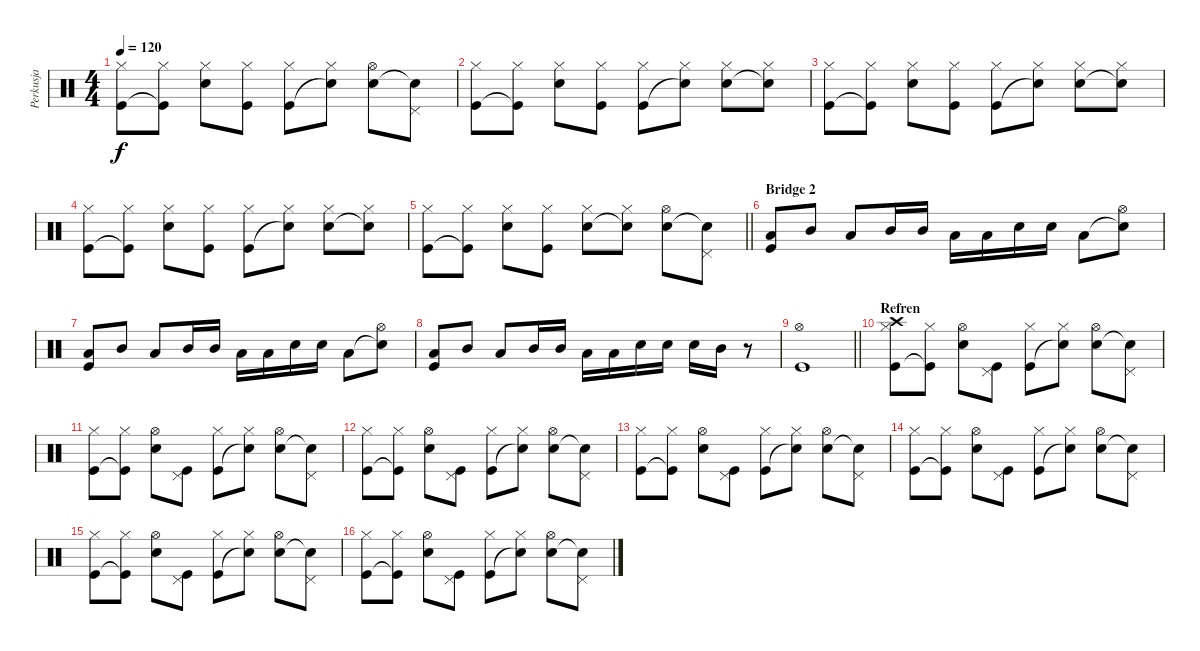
\track ("Perkusja" "Perkusja") {instrument percussion}
\staff {score}
\articulation defaults
\ts (4 4)
\tempo 120
\clef neutral
\ks c
("Kick (hit)" "Hi-Hat (closed)").8{dy f} ("Kick (hit)"{t} "Hi-Hat (closed)").8 ("Snare (hit) 2" "Hi-Hat (closed)").8 ("Kick (hit)" "Hi-Hat (closed)").8 ("Kick (hit)" "Hi-Hat (closed)").8 ("Snare (hit)"{t} "Hi-Hat (closed)").8 ("Snare (hit) 2" "Hi-Hat (open)").8 ("Snare (hit)"{t} "Pedal Hi-Hat (hit)").8 |
("Kick (hit)" "Hi-Hat (closed)").8 ("Kick (hit)"{t} "Hi-Hat (closed)").8 ("Snare (hit) 2" "Hi-Hat (closed)").8 ("Kick (hit)" "Hi-Hat (closed)").8 ("Kick (hit)" "Hi-Hat (closed)").8 ("Snare (hit)"{t} "Hi-Hat (closed)").8 ("Snare (hit) 2" "Hi-Hat (closed)").8 ("Snare (hit)"{t} "Hi-Hat (closed)").8 |
("Kick (hit)" "Hi-Hat (closed)").8 ("Kick (hit)"{t} "Hi-Hat (closed)").8 ("Snare (hit) 2" "Hi-Hat (closed)").8 ("Kick (hit)" "Hi-Hat (closed)").8 ("Kick (hit)" "Hi-Hat (closed)").8 ("Snare (hit)"{t} "Hi-Hat (closed)").8 ("Snare (hit) 2" "Hi-Hat (closed)").8 ("Snare (hit)"{t} "Hi-Hat (closed)").8 |
("Kick (hit)" "Hi-Hat (closed)").8 ("Kick (hit)"{t} "Hi-Hat (closed)").8 ("Snare (hit) 2" "Hi-Hat (closed)").8 ("Kick (hit)" "Hi-Hat (closed)").8 ("Kick (hit)" "Hi-Hat (closed)").8 ("Snare (hit)"{t} "Hi-Hat (closed)").8 ("Snare (hit) 2" "Hi-Hat (closed)").8 ("Snare (hit)"{t} "Hi-Hat (closed)").8 |
\barLineRight lightlight
("Kick (hit)" "Hi-Hat (closed)").8 ("Kick (hit)"{t} "Hi-Hat (closed)").8 ("Snare (hit) 2" "Hi-Hat (closed)").8 ("Kick (hit)" "Hi-Hat (closed)").8 ("Snare (hit) 2" "Hi-Hat (closed)").8 ("Snare (hit)"{t} "Hi-Hat (closed)").8 ("Snare (hit) 2" "Hi-Hat (open)").8 ("Snare (hit)"{t} "Pedal Hi-Hat (hit)").8 |
\section ("" "Bridge 2")
("Kick (hit)" "Low Tom (hit)").8 "Mid Tom (hit)".8 "Low Tom (hit)".8 "Mid Tom (hit)".16 "Mid Tom (hit)".16 "Low Tom (hit)".16 "Low Tom (hit)".16 "Snare (hit) 2".16 "Snare (hit) 2".16 "Low Tom (hit)".8 ("Snare (hit)"{t} "Hi-Hat (open)").8 |
("Kick (hit)" "Low Tom (hit)").8 "Mid Tom (hit)".8 "Low Tom (hit)".8 "Mid Tom (hit)".16 "Mid Tom (hit)".16 "Low Tom (hit)".16 "Low Tom (hit)".16 "Snare (hit) 2".16 "Snare (hit) 2".16 "Low Tom (hit)".8 ("Snare (hit)"{t} "Hi-Hat (open)").8 |
("Kick (hit)" "Low Tom (hit)").8 "Mid Tom (hit)".8 "Low Tom (hit)".8 "Mid Tom (hit)".16 "Mid Tom (hit)".16 "Low Tom (hit)".16 "Low Tom (hit)".16 "Snare (hit) 2".16 "Snare (hit) 2".16 "Snare (hit) 2".16 "Mid Tom (hit)".16 r.8 |
\barLineRight lightlight
("Kick (hit)" "Hi-Hat (open)").1 |
\section ("" "Refren")
("Kick (hit)" "Hi-Hat (closed)" "Crash high (hit)").8 ("Kick (hit)"{t} "Hi-Hat (closed)").8 ("Snare (hit) 2" "Hi-Hat (open)").8 ("Kick (hit)" "Pedal Hi-Hat (hit)").8 ("Kick (hit)" "Hi-Hat (closed)").8 ("Snare (hit)"{t} "Hi-Hat (closed)").8 ("Snare (hit) 2" "Hi-Hat (open)").8 ("Snare (hit)"{t} "Pedal Hi-Hat (hit)").8 |
("Kick (hit)" "Hi-Hat (closed)").8 ("Kick (hit)"{t} "Hi-Hat (closed)").8 ("Snare (hit) 2" "Hi-Hat (open)").8 ("Kick (hit)" "Pedal Hi-Hat (hit)").8 ("Kick (hit)" "Hi-Hat (closed)").8 ("Snare (hit)"{t} "Hi-Hat (closed)").8 ("Snare (hit) 2" "Hi-Hat (open)").8 ("Snare (hit)"{t} "Pedal Hi-Hat (hit)").8 |
("Kick (hit)" "Hi-Hat (closed)").8 ("Kick (hit)"{t} "Hi-Hat (closed)").8 ("Snare (hit) 2" "Hi-Hat (open)").8 ("Kick (hit)" "Pedal Hi-Hat (hit)").8 ("Kick (hit)" "Hi-Hat (closed)").8 ("Snare (hit)"{t} "Hi-Hat (closed)").8 ("Snare (hit) 2" "Hi-Hat (open)").8 ("Snare (hit)"{t} "Pedal Hi-Hat (hit)").8 |
("Kick (hit)" "Hi-Hat (closed)").8 ("Kick (hit)"{t} "Hi-Hat (closed)").8 ("Snare (hit) 2" "Hi-Hat (open)").8 ("Kick (hit)" "Pedal Hi-Hat (hit)").8 ("Kick (hit)" "Hi-Hat (closed)").8 ("Snare (hit)"{t} "Hi-Hat (closed)").8 ("Snare (hit) 2" "Hi-Hat (open)").8 ("Snare (hit)"{t} "Pedal Hi-Hat (hit)").8 |
("Kick (hit)" "Hi-Hat (closed)").8 ("Kick (hit)"{t} "Hi-Hat (closed)").8 ("Snare (hit) 2" "Hi-Hat (open)").8 ("Kick (hit)" "Pedal Hi-Hat (hit)").8 ("Kick (hit)" "Hi-Hat (closed)").8 ("Snare (hit)"{t} "Hi-Hat (closed)").8 ("Snare (hit) 2" "Hi-Hat (open)").8 ("Snare (hit)"{t} "Pedal Hi-Hat (hit)").8 |
("Kick (hit)" "Hi-Hat (closed)").8 ("Kick (hit)"{t} "Hi-Hat (closed)").8 ("Snare (hit) 2" "Hi-Hat (open)").8 ("Kick (hit)" "Pedal Hi-Hat (hit)").8 ("Kick (hit)" "Hi-Hat (closed)").8 ("Snare (hit)"{t} "Hi-Hat (closed)").8 ("Snare (hit) 2" "Hi-Hat (open)").8 ("Snare (hit)"{t} "Pedal Hi-Hat (hit)").8 |
("Kick (hit)" "Hi-Hat (closed)").8 ("Kick (hit)"{t} "Hi-Hat (closed)").8 ("Snare (hit) 2" "Hi-Hat (open)").8 ("Kick (hit)" "Pedal Hi-Hat (hit)").8 ("Kick (hit)" "Hi-Hat (closed)").8 ("Snare (hit)"{t} "Hi-Hat (closed)").8 ("Snare (hit) 2" "Hi-Hat (open)").8 ("Snare (hit)"{t} "Pedal Hi-Hat (hit)").8
